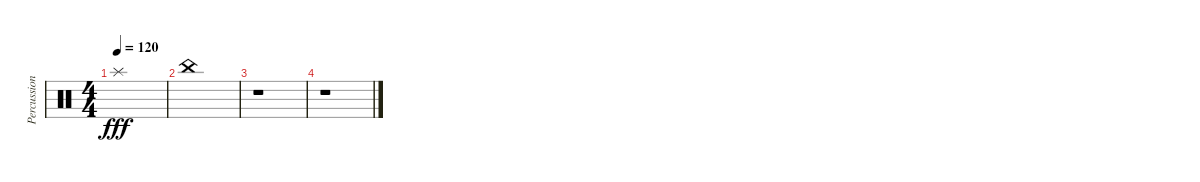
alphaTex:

\track ("Percussions" "Percussion") {instrument percussion}
\staff {score}
\articulation defaults
\ts (4 4)
\tempo 120
\clef neutral
\ks c "Splash (hit)".1{dy fff}
|
"China (hit)".1 |
r.1 |
r.1
